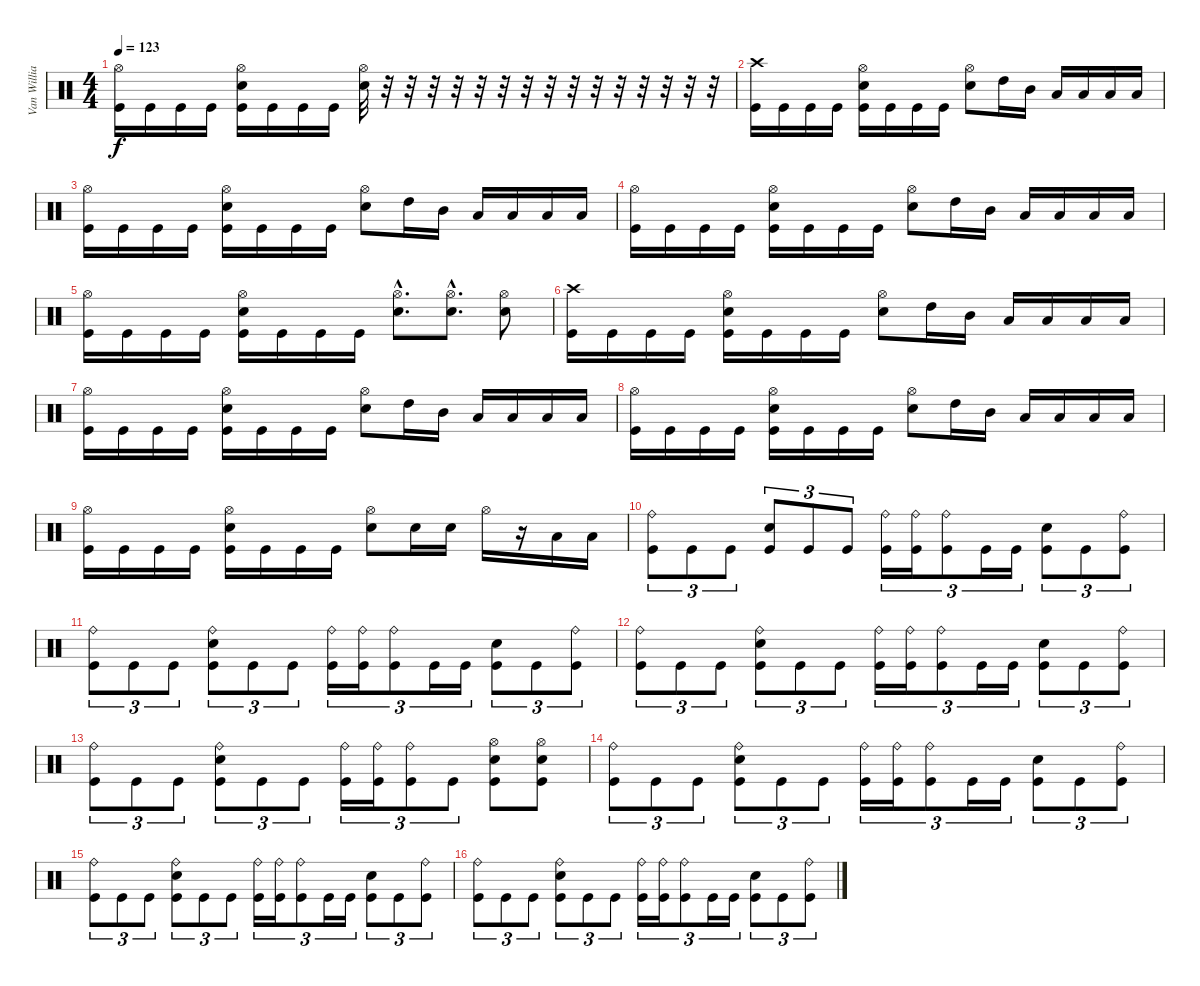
\track ("Van Williams" "Van Willia") {instrument percussion}
\staff {score}
\articulation defaults
\ts (4 4)
\tempo 123
\clef neutral
\ks c
("Hi-Hat (open)" "Kick (hit)").16{dy f} "Kick (hit)".16 "Kick (hit)".16 "Kick (hit)".16 ("Hi-Hat (open)" "Electric Snare (hit)" "Kick (hit)").16 "Kick (hit)".16 "Kick (hit)".16 "Kick (hit)".16 ("Hi-Hat (open)" "Electric Snare (hit)").32 r.32 r.32 r.32 r.32 r.32 r.32 r.32 r.32 r.32 r.32 r.32 r.32 r.32 r.32 r.32 |
("Crash high (hit)" "Kick (hit)").16 "Kick (hit)".16 "Kick (hit)".16 "Kick (hit)".16 ("Hi-Hat (open)" "Electric Snare (hit)" "Kick (hit)").16 "Kick (hit)".16 "Kick (hit)".16 "Kick (hit)".16 ("Hi-Hat (open)" "Electric Snare (hit)").8 "High Tom (hit)".16 "Mid Tom (hit)".16 "Low Tom (hit)".16 "Low Tom (hit)".16 "Low Tom (hit)".16 "Low Tom (hit)".16 |
("Hi-Hat (open)" "Kick (hit)").16 "Kick (hit)".16 "Kick (hit)".16 "Kick (hit)".16 ("Hi-Hat (open)" "Electric Snare (hit)" "Kick (hit)").16 "Kick (hit)".16 "Kick (hit)".16 "Kick (hit)".16 ("Hi-Hat (open)" "Electric Snare (hit)").8 "High Tom (hit)".16 "Mid Tom (hit)".16 "Low Tom (hit)".16 "Low Tom (hit)".16 "Low Tom (hit)".16 "Low Tom (hit)".16 |
("Hi-Hat (open)" "Kick (hit)").16 "Kick (hit)".16 "Kick (hit)".16 "Kick (hit)".16 ("Hi-Hat (open)" "Electric Snare (hit)" "Kick (hit)").16 "Kick (hit)".16 "Kick (hit)".16 "Kick (hit)".16 ("Hi-Hat (open)" "Electric Snare (hit)").8 "High Tom (hit)".16 "Mid Tom (hit)".16 "Low Tom (hit)".16 "Low Tom (hit)".16 "Low Tom (hit)".16 "Low Tom (hit)".16 |
("Hi-Hat (open)" "Kick (hit)").16 "Kick (hit)".16 "Kick (hit)".16 "Kick (hit)".16 ("Hi-Hat (open)" "Electric Snare (hit)" "Kick (hit)").16 "Kick (hit)".16 "Kick (hit)".16 "Kick (hit)".16 ("Hi-Hat (open)"{hac} "Electric Snare (hit)"{hac}).8{d} ("Hi-Hat (open)"{hac} "Electric Snare (hit)"{hac}).8{d} ("Hi-Hat (open)" "Electric Snare (hit)").8 |
("Crash high (hit)" "Kick (hit)").16 "Kick (hit)".16 "Kick (hit)".16 "Kick (hit)".16 ("Hi-Hat (open)" "Electric Snare (hit)" "Kick (hit)").16 "Kick (hit)".16 "Kick (hit)".16 "Kick (hit)".16 ("Hi-Hat (open)" "Electric Snare (hit)").8 "High Tom (hit)".16 "Mid Tom (hit)".16 "Low Tom (hit)".16 "Low Tom (hit)".16 "Low Tom (hit)".16 "Low Tom (hit)".16 |
("Hi-Hat (open)" "Kick (hit)").16 "Kick (hit)".16 "Kick (hit)".16 "Kick (hit)".16 ("Hi-Hat (open)" "Electric Snare (hit)" "Kick (hit)").16 "Kick (hit)".16 "Kick (hit)".16 "Kick (hit)".16 ("Hi-Hat (open)" "Electric Snare (hit)").8 "High Tom (hit)".16 "Mid Tom (hit)".16 "Low Tom (hit)".16 "Low Tom (hit)".16 "Low Tom (hit)".16 "Low Tom (hit)".16 |
("Hi-Hat (open)" "Kick (hit)").16 "Kick (hit)".16 "Kick (hit)".16 "Kick (hit)".16 ("Hi-Hat (open)" "Electric Snare (hit)" "Kick (hit)").16 "Kick (hit)".16 "Kick (hit)".16 "Kick (hit)".16 ("Hi-Hat (open)" "Electric Snare (hit)").8 "High Tom (hit)".16 "Mid Tom (hit)".16 "Low Tom (hit)".16 "Low Tom (hit)".16 "Low Tom (hit)".16 "Low Tom (hit)".16 |
("Hi-Hat (open)" "Kick (hit)").16 "Kick (hit)".16 "Kick (hit)".16 "Kick (hit)".16 ("Hi-Hat (open)" "Electric Snare (hit)" "Kick (hit)").16 "Kick (hit)".16 "Kick (hit)".16 "Kick (hit)".16 ("Hi-Hat (open)" "Electric Snare (hit)").8 "Electric Snare (hit)".16 "Electric Snare (hit)".16 "Hi-Hat (open)".16 r.16 "Low Tom (hit)".16 "Low Tom (hit)".16 |
("Ride (bell)" "Kick (hit)").8{tu (3 2)} "Kick (hit)".8{tu (3 2)} "Kick (hit)".8{tu (3 2)} ("Electric Snare (hit)" "Kick (hit)").8{tu (3 2)} "Kick (hit)".8{tu (3 2)} "Kick (hit)".8{tu (3 2)} ("Ride (bell)" "Kick (hit)").16{tu (3 2)} ("Ride (bell)" "Kick (hit)").16{tu (3 2)} ("Ride (bell)" "Kick (hit)").8{tu (3 2)} "Kick (hit)".16{tu (3 2)} "Kick (hit)".16{tu (3 2)} ("Electric Snare (hit)" "Kick (hit)").8{tu (3 2)} "Kick (hit)".8{tu (3 2)} ("Ride (bell)" "Kick (hit)").8{tu (3 2)} |
("Ride (bell)" "Kick (hit)").8{tu (3 2)} "Kick (hit)".8{tu (3 2)} "Kick (hit)".8{tu (3 2)} ("Ride (bell)" "Electric Snare (hit)" "Kick (hit)").8{tu (3 2)} "Kick (hit)".8{tu (3 2)} "Kick (hit)".8{tu (3 2)} ("Ride (bell)" "Kick (hit)").16{tu (3 2)} ("Ride (bell)" "Kick (hit)").16{tu (3 2)} ("Ride (bell)" "Kick (hit)").8{tu (3 2)} "Kick (hit)".16{tu (3 2)} "Kick (hit)".16{tu (3 2)} ("Electric Snare (hit)" "Kick (hit)").8{tu (3 2)} "Kick (hit)".8{tu (3 2)} ("Ride (bell)" "Kick (hit)").8{tu (3 2)} |
("Ride (bell)" "Kick (hit)").8{tu (3 2)} "Kick (hit)".8{tu (3 2)} "Kick (hit)".8{tu (3 2)} ("Ride (bell)" "Electric Snare (hit)" "Kick (hit)").8{tu (3 2)} "Kick (hit)".8{tu (3 2)} "Kick (hit)".8{tu (3 2)} ("Ride (bell)" "Kick (hit)").16{tu (3 2)} ("Ride (bell)" "Kick (hit)").16{tu (3 2)} ("Ride (bell)" "Kick (hit)").8{tu (3 2)} "Kick (hit)".16{tu (3 2)} "Kick (hit)".16{tu (3 2)} ("Electric Snare (hit)" "Kick (hit)").8{tu (3 2)} "Kick (hit)".8{tu (3 2)} ("Ride (bell)" "Kick (hit)").8{tu (3 2)} |
("Ride (bell)" "Kick (hit)").8{tu (3 2)} "Kick (hit)".8{tu (3 2)} "Kick (hit)".8{tu (3 2)} ("Ride (bell)" "Electric Snare (hit)" "Kick (hit)").8{tu (3 2)} "Kick (hit)".8{tu (3 2)} "Kick (hit)".8{tu (3 2)} ("Ride (bell)" "Kick (hit)").16{tu (3 2)} ("Ride (bell)" "Kick (hit)").16{tu (3 2)} ("Ride (bell)" "Kick (hit)").8{tu (3 2)} "Kick (hit)".8{tu (3 2)} ("Hi-Hat (open)" "Electric Snare (hit)" "Kick (hit)").8 ("Hi-Hat (open)" "Electric Snare (hit)" "Kick (hit)").8 |
("Ride (bell)" "Kick (hit)").8{tu (3 2)} "Kick (hit)".8{tu (3 2)} "Kick (hit)".8{tu (3 2)} ("Ride (bell)" "Electric Snare (hit)" "Kick (hit)").8{tu (3 2)} "Kick (hit)".8{tu (3 2)} "Kick (hit)".8{tu (3 2)} ("Ride (bell)" "Kick (hit)").16{tu (3 2)} ("Ride (bell)" "Kick (hit)").16{tu (3 2)} ("Ride (bell)" "Kick (hit)").8{tu (3 2)} "Kick (hit)".16{tu (3 2)} "Kick (hit)".16{tu (3 2)} ("Electric Snare (hit)" "Kick (hit)").8{tu (3 2)} "Kick (hit)".8{tu (3 2)} ("Ride (bell)" "Kick (hit)").8{tu (3 2)} |
("Ride (bell)" "Kick (hit)").8{tu (3 2)} "Kick (hit)".8{tu (3 2)} "Kick (hit)".8{tu (3 2)} ("Ride (bell)" "Electric Snare (hit)" "Kick (hit)").8{tu (3 2)} "Kick (hit)".8{tu (3 2)} "Kick (hit)".8{tu (3 2)} ("Ride (bell)" "Kick (hit)").16{tu (3 2)} ("Ride (bell)" "Kick (hit)").16{tu (3 2)} ("Ride (bell)" "Kick (hit)").8{tu (3 2)} "Kick (hit)".16{tu (3 2)} "Kick (hit)".16{tu (3 2)} ("Electric Snare (hit)" "Kick (hit)").8{tu (3 2)} "Kick (hit)".8{tu (3 2)} ("Ride (bell)" "Kick (hit)").8{tu (3 2)} |
("Ride (bell)" "Kick (hit)").8{tu (3 2)} "Kick (hit)".8{tu (3 2)} "Kick (hit)".8{tu (3 2)} ("Ride (bell)" "Electric Snare (hit)" "Kick (hit)").8{tu (3 2)} "Kick (hit)".8{tu (3 2)} "Kick (hit)".8{tu (3 2)} ("Ride (bell)" "Kick (hit)").16{tu (3 2)} ("Ride (bell)" "Kick (hit)").16{tu (3 2)} ("Ride (bell)" "Kick (hit)").8{tu (3 2)} "Kick (hit)".16{tu (3 2)} "Kick (hit)".16{tu (3 2)} ("Electric Snare (hit)" "Kick (hit)").8{tu (3 2)} "Kick (hit)".8{tu (3 2)} ("Ride (bell)" "Kick (hit)").8{tu (3 2)}
